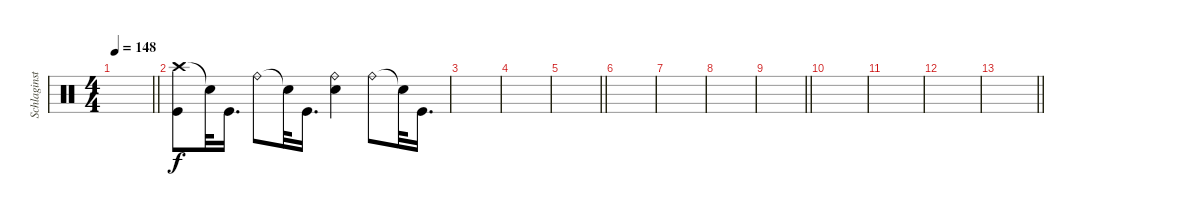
\track ("Schlaginstrumente - Auswahl" "Schlaginst") {instrument percussion}
\staff {score}
\articulation defaults
\ts (4 4)
\tempo 148
\clef neutral
\barLineRight lightlight
\ks c
|
\section ("" "")
("Crash high (hit)" "Kick (hit)").8 "Snare (hit)"{t}.32 "Kick (hit)".16{d} "Ride (bell)".8 "Snare (hit)"{t}.32 "Kick (hit)".16{d} ("Ride (bell)" "Electric Snare (hit)").4 "Ride (bell)".8 "Snare (hit)"{t}.32 "Kick (hit)".16{d} |
|
|
\barLineRight lightlight
|
|
|
|
\barLineRight lightlight
|
|
|
|
\barLineRight lightlight
